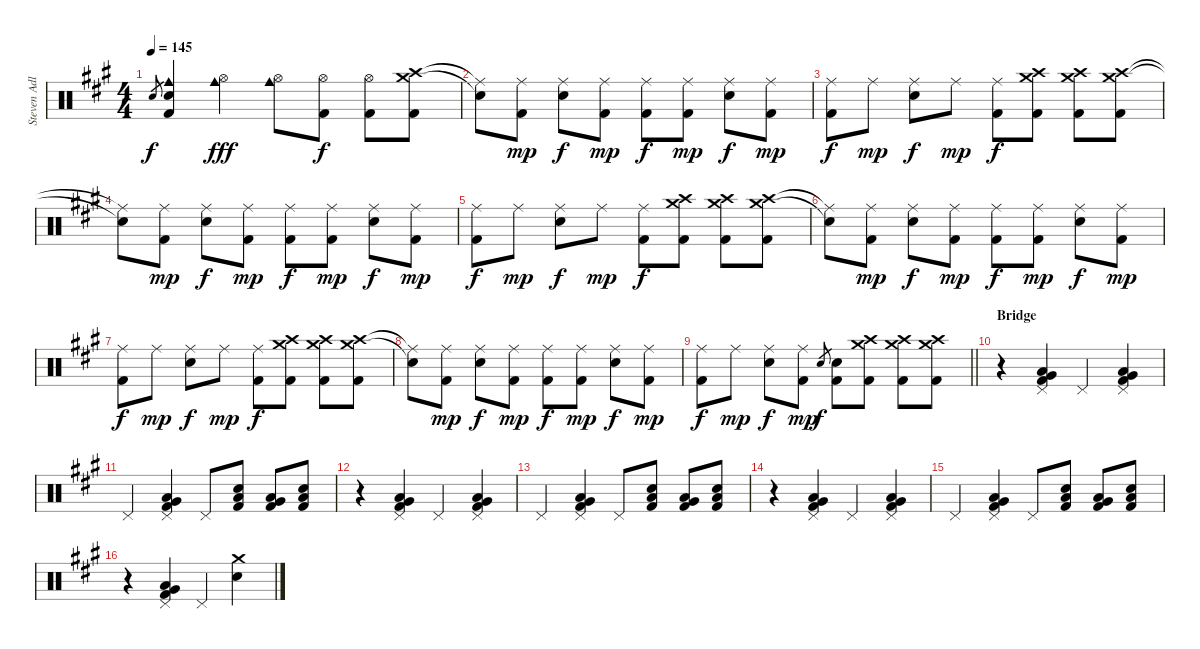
\track ("Steven Adler - Drums" "Steven Adl") {instrument percussion}
\staff {score}
\articulation defaults
\ts (4 4)
\tempo 145
\clef neutral
\ks a "Snare (hit) 2".8{gr dy f}
("Cowbell medium (hit)" "Snare (hit) 2" "Kick (hit) 2").4 ("Hi-Hat (open)" "Cowbell medium (hit)").4{dy fff} ("Hi-Hat (open)" "Cowbell medium (hit)").8 ("Hi-Hat (open)" "Kick (hit) 2").8{dy f} ("Hi-Hat (open)" "Kick (hit) 2").8 ("Crash medium (hit)" "Crash high (hit)" "Kick (hit) 2").8 |
("Snare (hit)"{t} "Ride (middle)"{t}).8 ("Ride (middle)" "Kick (hit) 2").8{dy mp} ("Ride (middle)" "Snare (hit) 2").8{dy f} ("Ride (middle)" "Kick (hit) 2").8{dy mp} ("Ride (middle)" "Kick (hit) 2").8{dy f} ("Ride (middle)" "Kick (hit) 2").8{dy mp} ("Ride (middle)" "Snare (hit) 2").8{dy f} ("Ride (middle)" "Kick (hit) 2").8{dy mp} |
("Ride (middle)" "Kick (hit) 2").8{dy f} "Ride (middle)".8{dy mp} ("Ride (middle)" "Snare (hit) 2").8{dy f} "Ride (middle)".8{dy mp} ("Ride (middle)" "Kick (hit) 2").8{dy f} ("Crash medium (hit)" "Crash high (hit)" "Kick (hit) 2").8 ("Crash medium (hit)" "Crash high (hit)" "Kick (hit) 2").8 ("Crash medium (hit)" "Crash high (hit)" "Kick (hit) 2").8 |
("Snare (hit)"{t} "Ride (middle)"{t}).8 ("Ride (middle)" "Kick (hit) 2").8{dy mp} ("Ride (middle)" "Snare (hit) 2").8{dy f} ("Ride (middle)" "Kick (hit) 2").8{dy mp} ("Ride (middle)" "Kick (hit) 2").8{dy f} ("Ride (middle)" "Kick (hit) 2").8{dy mp} ("Ride (middle)" "Snare (hit) 2").8{dy f} ("Ride (middle)" "Kick (hit) 2").8{dy mp} |
("Ride (middle)" "Kick (hit) 2").8{dy f} "Ride (middle)".8{dy mp} ("Ride (middle)" "Snare (hit) 2").8{dy f} "Ride (middle)".8{dy mp} ("Ride (middle)" "Kick (hit) 2").8{dy f} ("Crash medium (hit)" "Crash high (hit)" "Kick (hit) 2").8 ("Crash medium (hit)" "Crash high (hit)" "Kick (hit) 2").8 ("Crash medium (hit)" "Crash high (hit)" "Kick (hit) 2").8 |
("Snare (hit)"{t} "Ride (middle)"{t}).8 ("Ride (middle)" "Kick (hit) 2").8{dy mp} ("Ride (middle)" "Snare (hit) 2").8{dy f} ("Ride (middle)" "Kick (hit) 2").8{dy mp} ("Ride (middle)" "Kick (hit) 2").8{dy f} ("Ride (middle)" "Kick (hit) 2").8{dy mp} ("Ride (middle)" "Snare (hit) 2").8{dy f} ("Ride (middle)" "Kick (hit) 2").8{dy mp} |
("Ride (middle)" "Kick (hit) 2").8{dy f} "Ride (middle)".8{dy mp} ("Ride (middle)" "Snare (hit) 2").8{dy f} "Ride (middle)".8{dy mp} ("Ride (middle)" "Kick (hit) 2").8{dy f} ("Crash medium (hit)" "Crash high (hit)" "Kick (hit) 2").8 ("Crash medium (hit)" "Crash high (hit)" "Kick (hit) 2").8 ("Crash medium (hit)" "Crash high (hit)" "Kick (hit) 2").8 |
("Snare (hit)"{t} "Ride (middle)"{t}).8 ("Ride (middle)" "Kick (hit) 2").8{dy mp} ("Ride (middle)" "Snare (hit) 2").8{dy f} ("Ride (middle)" "Kick (hit) 2").8{dy mp} ("Ride (middle)" "Kick (hit) 2").8{dy f} ("Ride (middle)" "Kick (hit) 2").8{dy mp} ("Ride (middle)" "Snare (hit) 2").8{dy f} ("Ride (middle)" "Kick (hit) 2").8{dy mp} |
\barLineRight lightlight
("Ride (middle)" "Kick (hit) 2").8{dy f} "Ride (middle)".8{dy mp} ("Ride (middle)" "Snare (hit) 2").8{dy f} ("Ride (middle)" "Kick (hit) 2").8{dy mp} "Snare (hit) 2".8{gr dy f} ("Snare (hit) 2" "Kick (hit) 2").8 ("Crash medium (hit)" "Crash high (hit)" "Kick (hit) 2").8 ("Crash medium (hit)" "Crash high (hit)" "Kick (hit) 2").8 ("Crash medium (hit)" "Crash high (hit)" "Kick (hit) 2").8 |
\section ("" "Bridge")
r.4 ("Pedal Hi-Hat (hit)" "Very Low Tom (hit)" "Low Tom (hit)" "Kick (hit) 2").4 "Pedal Hi-Hat (hit)".4 ("Pedal Hi-Hat (hit)" "Very Low Tom (hit)" "Low Tom (hit)" "Kick (hit) 2").4 |
"Pedal Hi-Hat (hit)".4 ("Pedal Hi-Hat (hit)" "Very Low Tom (hit)" "Low Tom (hit)" "Kick (hit) 2").4 "Pedal Hi-Hat (hit)".8 ("Low Tom (hit)" "Snare (hit) 2" "Kick (hit) 2").8 ("Very Low Tom (hit)" "Low Tom (hit)" "Kick (hit) 2").8 ("Low Tom (hit)" "Snare (hit) 2" "Kick (hit) 2").8 |
r.4 ("Pedal Hi-Hat (hit)" "Very Low Tom (hit)" "Low Tom (hit)" "Kick (hit) 2").4 "Pedal Hi-Hat (hit)".4 ("Pedal Hi-Hat (hit)" "Very Low Tom (hit)" "Low Tom (hit)" "Kick (hit) 2").4 |
"Pedal Hi-Hat (hit)".4 ("Pedal Hi-Hat (hit)" "Very Low Tom (hit)" "Low Tom (hit)" "Kick (hit) 2").4 "Pedal Hi-Hat (hit)".8 ("Low Tom (hit)" "Snare (hit) 2" "Kick (hit) 2").8 ("Very Low Tom (hit)" "Low Tom (hit)" "Kick (hit) 2").8 ("Low Tom (hit)" "Snare (hit) 2" "Kick (hit) 2").8 |
r.4 ("Pedal Hi-Hat (hit)" "Very Low Tom (hit)" "Low Tom (hit)" "Kick (hit) 2").4 "Pedal Hi-Hat (hit)".4 ("Pedal Hi-Hat (hit)" "Very Low Tom (hit)" "Low Tom (hit)" "Kick (hit) 2").4 |
"Pedal Hi-Hat (hit)".4 ("Pedal Hi-Hat (hit)" "Very Low Tom (hit)" "Low Tom (hit)" "Kick (hit) 2").4 "Pedal Hi-Hat (hit)".8 ("Low Tom (hit)" "Snare (hit) 2" "Kick (hit) 2").8 ("Very Low Tom (hit)" "Low Tom (hit)" "Kick (hit) 2").8 ("Low Tom (hit)" "Snare (hit) 2" "Kick (hit) 2").8 |
r.4 ("Pedal Hi-Hat (hit)" "Very Low Tom (hit)" "Low Tom (hit)" "Kick (hit) 2").4 "Pedal Hi-Hat (hit)".4 ("Crash medium (hit)" "Snare (hit) 2").4
